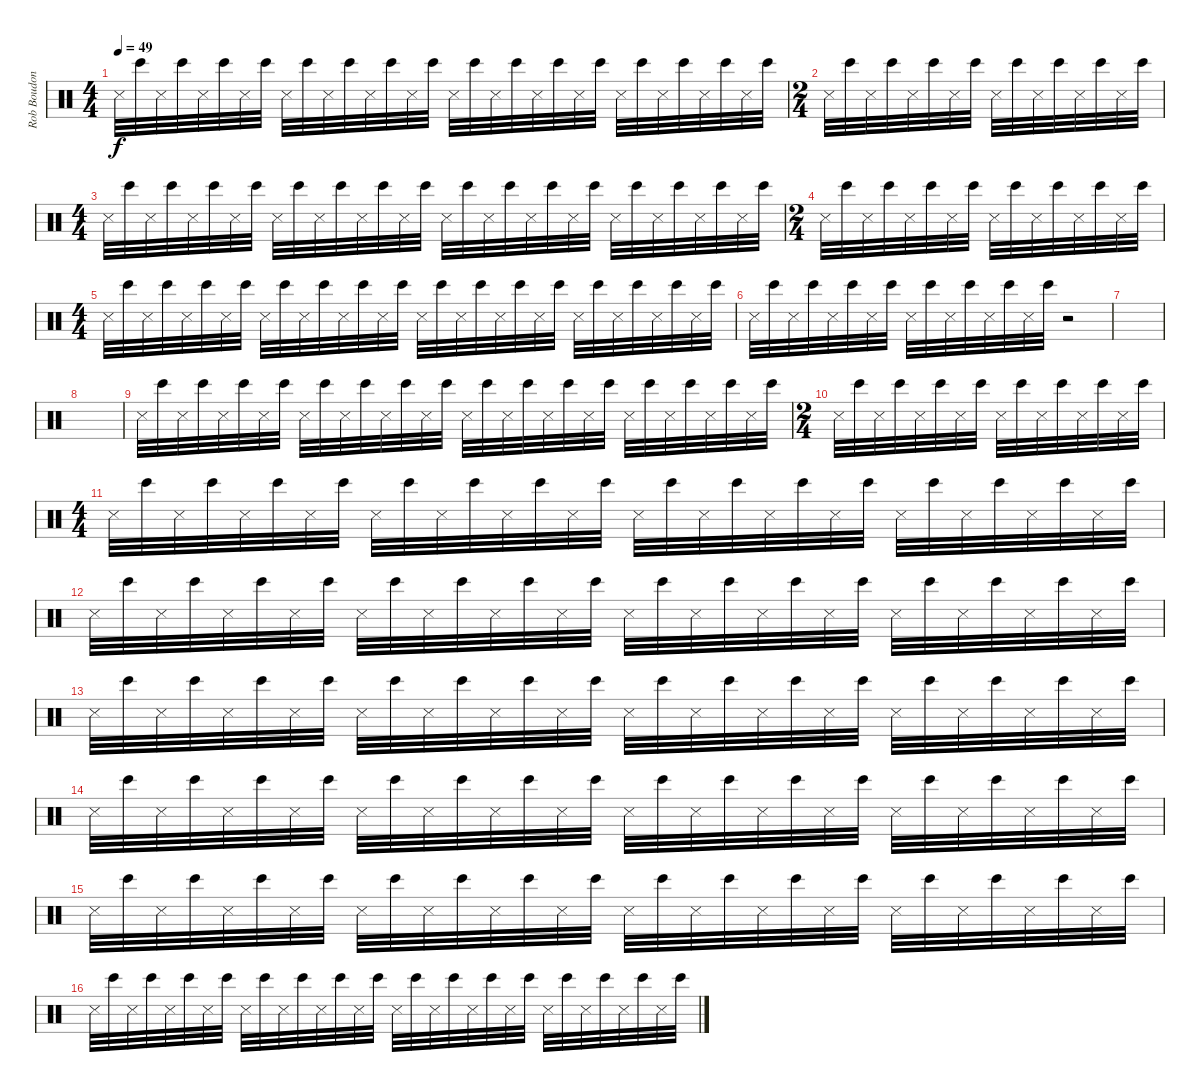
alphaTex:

\track ("Rob Boudon [Drums]" "Rob Boudon") {instrument percussion}
\staff {score}
\articulation defaults
\ts (4 4)
\tempo 49
\clef neutral
\ks c "Snare (side stick) 3".32{dy f} "Bongo High (hit)".32 "Snare (side stick) 3".32 "Bongo High (hit)".32 "Snare (side stick) 3".32 "Bongo High (hit)".32 "Snare (side stick) 3".32 "Bongo High (hit)".32 "Snare (side stick) 3".32 "Bongo High (hit)".32 "Snare (side stick) 3".32 "Bongo High (hit)".32 "Snare (side stick) 3".32 "Bongo High (hit)".32 "Snare (side stick) 3".32 "Bongo High (hit)".32 "Snare (side stick) 3".32 "Bongo High (hit)".32 "Snare (side stick) 3".32 "Bongo High (hit)".32 "Snare (side stick) 3".32 "Bongo High (hit)".32 "Snare (side stick) 3".32 "Bongo High (hit)".32 "Snare (side stick) 3".32 "Bongo High (hit)".32 "Snare (side stick) 3".32 "Bongo High (hit)".32 "Snare (side stick) 3".32 "Bongo High (hit)".32 "Snare (side stick) 3".32 "Bongo High (hit)".32
|
\ts (2 4)
"Snare (side stick) 3".32 "Bongo High (hit)".32 "Snare (side stick) 3".32 "Bongo High (hit)".32 "Snare (side stick) 3".32 "Bongo High (hit)".32 "Snare (side stick) 3".32 "Bongo High (hit)".32 "Snare (side stick) 3".32 "Bongo High (hit)".32 "Snare (side stick) 3".32 "Bongo High (hit)".32 "Snare (side stick) 3".32 "Bongo High (hit)".32 "Snare (side stick) 3".32 "Bongo High (hit)".32 |
\ts (4 4)
"Snare (side stick) 3".32 "Bongo High (hit)".32 "Snare (side stick) 3".32 "Bongo High (hit)".32 "Snare (side stick) 3".32 "Bongo High (hit)".32 "Snare (side stick) 3".32 "Bongo High (hit)".32 "Snare (side stick) 3".32 "Bongo High (hit)".32 "Snare (side stick) 3".32 "Bongo High (hit)".32 "Snare (side stick) 3".32 "Bongo High (hit)".32 "Snare (side stick) 3".32 "Bongo High (hit)".32 "Snare (side stick) 3".32 "Bongo High (hit)".32 "Snare (side stick) 3".32 "Bongo High (hit)".32 "Snare (side stick) 3".32 "Bongo High (hit)".32 "Snare (side stick) 3".32 "Bongo High (hit)".32 "Snare (side stick) 3".32 "Bongo High (hit)".32 "Snare (side stick) 3".32 "Bongo High (hit)".32 "Snare (side stick) 3".32 "Bongo High (hit)".32 "Snare (side stick) 3".32 "Bongo High (hit)".32 |
\ts (2 4)
"Snare (side stick) 3".32 "Bongo High (hit)".32 "Snare (side stick) 3".32 "Bongo High (hit)".32 "Snare (side stick) 3".32 "Bongo High (hit)".32 "Snare (side stick) 3".32 "Bongo High (hit)".32 "Snare (side stick) 3".32 "Bongo High (hit)".32 "Snare (side stick) 3".32 "Bongo High (hit)".32 "Snare (side stick) 3".32 "Bongo High (hit)".32 "Snare (side stick) 3".32 "Bongo High (hit)".32 |
\ts (4 4)
"Snare (side stick) 3".32 "Bongo High (hit)".32 "Snare (side stick) 3".32 "Bongo High (hit)".32 "Snare (side stick) 3".32 "Bongo High (hit)".32 "Snare (side stick) 3".32 "Bongo High (hit)".32 "Snare (side stick) 3".32 "Bongo High (hit)".32 "Snare (side stick) 3".32 "Bongo High (hit)".32 "Snare (side stick) 3".32 "Bongo High (hit)".32 "Snare (side stick) 3".32 "Bongo High (hit)".32 "Snare (side stick) 3".32 "Bongo High (hit)".32 "Snare (side stick) 3".32 "Bongo High (hit)".32 "Snare (side stick) 3".32 "Bongo High (hit)".32 "Snare (side stick) 3".32 "Bongo High (hit)".32 "Snare (side stick) 3".32 "Bongo High (hit)".32 "Snare (side stick) 3".32 "Bongo High (hit)".32 "Snare (side stick) 3".32 "Bongo High (hit)".32 "Snare (side stick) 3".32 "Bongo High (hit)".32 |
"Snare (side stick) 3".32 "Bongo High (hit)".32 "Snare (side stick) 3".32 "Bongo High (hit)".32 "Snare (side stick) 3".32 "Bongo High (hit)".32 "Snare (side stick) 3".32 "Bongo High (hit)".32 "Snare (side stick) 3".32 "Bongo High (hit)".32 "Snare (side stick) 3".32 "Bongo High (hit)".32 "Snare (side stick) 3".32 "Bongo High (hit)".32 "Snare (side stick) 3".32 "Bongo High (hit)".32 r.2 |
|
|
"Snare (side stick) 3".32 "Bongo High (hit)".32 "Snare (side stick) 3".32 "Bongo High (hit)".32 "Snare (side stick) 3".32 "Bongo High (hit)".32 "Snare (side stick) 3".32 "Bongo High (hit)".32 "Snare (side stick) 3".32 "Bongo High (hit)".32 "Snare (side stick) 3".32 "Bongo High (hit)".32 "Snare (side stick) 3".32 "Bongo High (hit)".32 "Snare (side stick) 3".32 "Bongo High (hit)".32 "Snare (side stick) 3".32 "Bongo High (hit)".32 "Snare (side stick) 3".32 "Bongo High (hit)".32 "Snare (side stick) 3".32 "Bongo High (hit)".32 "Snare (side stick) 3".32 "Bongo High (hit)".32 "Snare (side stick) 3".32 "Bongo High (hit)".32 "Snare (side stick) 3".32 "Bongo High (hit)".32 "Snare (side stick) 3".32 "Bongo High (hit)".32 "Snare (side stick) 3".32 "Bongo High (hit)".32 |
\ts (2 4)
"Snare (side stick) 3".32 "Bongo High (hit)".32 "Snare (side stick) 3".32 "Bongo High (hit)".32 "Snare (side stick) 3".32 "Bongo High (hit)".32 "Snare (side stick) 3".32 "Bongo High (hit)".32 "Snare (side stick) 3".32 "Bongo High (hit)".32 "Snare (side stick) 3".32 "Bongo High (hit)".32 "Snare (side stick) 3".32 "Bongo High (hit)".32 "Snare (side stick) 3".32 "Bongo High (hit)".32 |
\ts (4 4)
"Snare (side stick) 3".32 "Bongo High (hit)".32 "Snare (side stick) 3".32 "Bongo High (hit)".32 "Snare (side stick) 3".32 "Bongo High (hit)".32 "Snare (side stick) 3".32 "Bongo High (hit)".32 "Snare (side stick) 3".32 "Bongo High (hit)".32 "Snare (side stick) 3".32 "Bongo High (hit)".32 "Snare (side stick) 3".32 "Bongo High (hit)".32 "Snare (side stick) 3".32 "Bongo High (hit)".32 "Snare (side stick) 3".32 "Bongo High (hit)".32 "Snare (side stick) 3".32 "Bongo High (hit)".32 "Snare (side stick) 3".32 "Bongo High (hit)".32 "Snare (side stick) 3".32 "Bongo High (hit)".32 "Snare (side stick) 3".32 "Bongo High (hit)".32 "Snare (side stick) 3".32 "Bongo High (hit)".32 "Snare (side stick) 3".32 "Bongo High (hit)".32 "Snare (side stick) 3".32 "Bongo High (hit)".32 |
"Snare (side stick) 3".32 "Bongo High (hit)".32 "Snare (side stick) 3".32 "Bongo High (hit)".32 "Snare (side stick) 3".32 "Bongo High (hit)".32 "Snare (side stick) 3".32 "Bongo High (hit)".32 "Snare (side stick) 3".32 "Bongo High (hit)".32 "Snare (side stick) 3".32 "Bongo High (hit)".32 "Snare (side stick) 3".32 "Bongo High (hit)".32 "Snare (side stick) 3".32 "Bongo High (hit)".32 "Snare (side stick) 3".32 "Bongo High (hit)".32 "Snare (side stick) 3".32 "Bongo High (hit)".32 "Snare (side stick) 3".32 "Bongo High (hit)".32 "Snare (side stick) 3".32 "Bongo High (hit)".32 "Snare (side stick) 3".32 "Bongo High (hit)".32 "Snare (side stick) 3".32 "Bongo High (hit)".32 "Snare (side stick) 3".32 "Bongo High (hit)".32 "Snare (side stick) 3".32 "Bongo High (hit)".32 |
"Snare (side stick) 3".32 "Bongo High (hit)".32 "Snare (side stick) 3".32 "Bongo High (hit)".32 "Snare (side stick) 3".32 "Bongo High (hit)".32 "Snare (side stick) 3".32 "Bongo High (hit)".32 "Snare (side stick) 3".32 "Bongo High (hit)".32 "Snare (side stick) 3".32 "Bongo High (hit)".32 "Snare (side stick) 3".32 "Bongo High (hit)".32 "Snare (side stick) 3".32 "Bongo High (hit)".32 "Snare (side stick) 3".32 "Bongo High (hit)".32 "Snare (side stick) 3".32 "Bongo High (hit)".32 "Snare (side stick) 3".32 "Bongo High (hit)".32 "Snare (side stick) 3".32 "Bongo High (hit)".32 "Snare (side stick) 3".32 "Bongo High (hit)".32 "Snare (side stick) 3".32 "Bongo High (hit)".32 "Snare (side stick) 3".32 "Bongo High (hit)".32 "Snare (side stick) 3".32 "Bongo High (hit)".32 |
"Snare (side stick) 3".32 "Bongo High (hit)".32 "Snare (side stick) 3".32 "Bongo High (hit)".32 "Snare (side stick) 3".32 "Bongo High (hit)".32 "Snare (side stick) 3".32 "Bongo High (hit)".32 "Snare (side stick) 3".32 "Bongo High (hit)".32 "Snare (side stick) 3".32 "Bongo High (hit)".32 "Snare (side stick) 3".32 "Bongo High (hit)".32 "Snare (side stick) 3".32 "Bongo High (hit)".32 "Snare (side stick) 3".32 "Bongo High (hit)".32 "Snare (side stick) 3".32 "Bongo High (hit)".32 "Snare (side stick) 3".32 "Bongo High (hit)".32 "Snare (side stick) 3".32 "Bongo High (hit)".32 "Snare (side stick) 3".32 "Bongo High (hit)".32 "Snare (side stick) 3".32 "Bongo High (hit)".32 "Snare (side stick) 3".32 "Bongo High (hit)".32 "Snare (side stick) 3".32 "Bongo High (hit)".32 |
"Snare (side stick) 3".32 "Bongo High (hit)".32 "Snare (side stick) 3".32 "Bongo High (hit)".32 "Snare (side stick) 3".32 "Bongo High (hit)".32 "Snare (side stick) 3".32 "Bongo High (hit)".32 "Snare (side stick) 3".32 "Bongo High (hit)".32 "Snare (side stick) 3".32 "Bongo High (hit)".32 "Snare (side stick) 3".32 "Bongo High (hit)".32 "Snare (side stick) 3".32 "Bongo High (hit)".32 "Snare (side stick) 3".32 "Bongo High (hit)".32 "Snare (side stick) 3".32 "Bongo High (hit)".32 "Snare (side stick) 3".32 "Bongo High (hit)".32 "Snare (side stick) 3".32 "Bongo High (hit)".32 "Snare (side stick) 3".32 "Bongo High (hit)".32 "Snare (side stick) 3".32 "Bongo High (hit)".32 "Snare (side stick) 3".32 "Bongo High (hit)".32 "Snare (side stick) 3".32 "Bongo High (hit)".32 |
"Snare (side stick) 3".32 "Bongo High (hit)".32 "Snare (side stick) 3".32 "Bongo High (hit)".32 "Snare (side stick) 3".32 "Bongo High (hit)".32 "Snare (side stick) 3".32 "Bongo High (hit)".32 "Snare (side stick) 3".32 "Bongo High (hit)".32 "Snare (side stick) 3".32 "Bongo High (hit)".32 "Snare (side stick) 3".32 "Bongo High (hit)".32 "Snare (side stick) 3".32 "Bongo High (hit)".32 "Snare (side stick) 3".32 "Bongo High (hit)".32 "Snare (side stick) 3".32 "Bongo High (hit)".32 "Snare (side stick) 3".32 "Bongo High (hit)".32 "Snare (side stick) 3".32 "Bongo High (hit)".32 "Snare (side stick) 3".32 "Bongo High (hit)".32 "Snare (side stick) 3".32 "Bongo High (hit)".32 "Snare (side stick) 3".32 "Bongo High (hit)".32 "Snare (side stick) 3".32 "Bongo High (hit)".32
